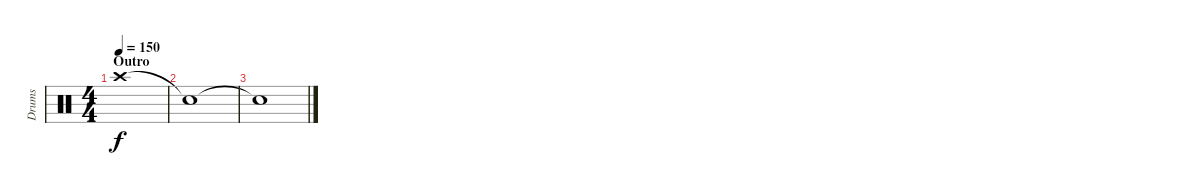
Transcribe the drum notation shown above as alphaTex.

\track ("Drums" "Drums") {instrument percussion}
\staff {score}
\articulation defaults
\ts (4 4)
\section ("" "Outro")
\tempo 150
\clef neutral
\ks c "Crash high (hit)".1{dy f}
|
"Snare (hit)"{t}.1 |
"Snare (hit)"{t}.1
